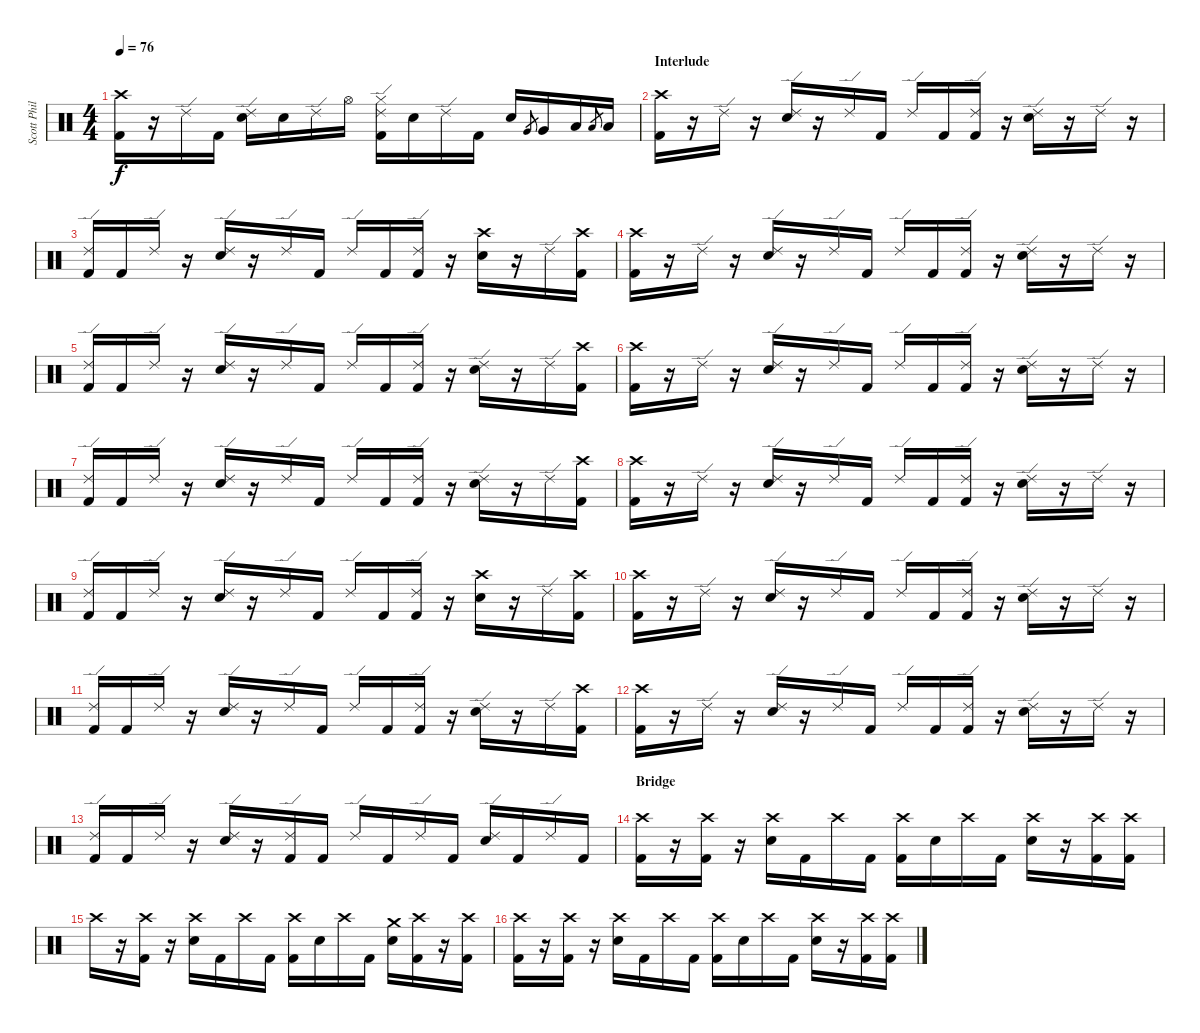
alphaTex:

\track ("Scott Phillips - Drums" "Scott Phil") {instrument percussion}
\staff {score}
\articulation defaults
\ts (4 4)
\tempo 76
\clef neutral
\ks c
("Crash high (hit)" "Kick (hit) 2").16{dy f} r.16 "Ride (edge) 2".16 "Kick (hit) 2".16 ("Ride (edge) 2" "Snare (hit) 2").16 "Snare (hit) 2".16 "Ride (edge) 2".16 "Hi-Hat (open)".16 ("Ride (edge) 2" "Hi-Hat (closed)" "Kick (hit) 2").16 "Snare (hit) 2".16 "Ride (edge) 2".16 "Kick (hit) 2".16 "Snare (hit) 2".16 "Very Low Tom (hit)".8{gr} "Very Low Tom (hit)".16 "Low Tom (hit)".16 "Low Floor Tom (hit)".8{gr} "Low Floor Tom (hit)".16 |
\section ("" "Interlude")
("Crash high (hit)" "Kick (hit) 2").16 r.16 "Ride (edge) 2".16 r.16 ("Ride (edge) 2" "Snare (hit) 2").16 r.16 "Ride (edge) 2".16 "Kick (hit) 2".16 "Ride (edge) 2".16 "Kick (hit) 2".16 ("Ride (edge) 2" "Kick (hit) 2").16 r.16 ("Ride (edge) 2" "Snare (hit) 2").16 r.16 "Ride (edge) 2".16 r.16 |
("Ride (edge) 2" "Kick (hit) 2").16 "Kick (hit) 2".16 "Ride (edge) 2".16 r.16 ("Ride (edge) 2" "Snare (hit) 2").16 r.16 "Ride (edge) 2".16 "Kick (hit) 2".16 "Ride (edge) 2".16 "Kick (hit) 2".16 ("Ride (edge) 2" "Kick (hit) 2").16 r.16 ("Crash high (hit)" "Snare (hit) 2").16 r.16 "Ride (edge) 2".16 ("Crash high (hit)" "Kick (hit) 2").16 |
("Crash high (hit)" "Kick (hit) 2").16 r.16 "Ride (edge) 2".16 r.16 ("Ride (edge) 2" "Snare (hit) 2").16 r.16 "Ride (edge) 2".16 "Kick (hit) 2".16 "Ride (edge) 2".16 "Kick (hit) 2".16 ("Ride (edge) 2" "Kick (hit) 2").16 r.16 ("Ride (edge) 2" "Snare (hit) 2").16 r.16 "Ride (edge) 2".16 r.16 |
("Ride (edge) 2" "Kick (hit) 2").16 "Kick (hit) 2".16 "Ride (edge) 2".16 r.16 ("Ride (edge) 2" "Snare (hit) 2").16 r.16 "Ride (edge) 2".16 "Kick (hit) 2".16 "Ride (edge) 2".16 "Kick (hit) 2".16 ("Ride (edge) 2" "Kick (hit) 2").16 r.16 ("Ride (edge) 2" "Snare (hit) 2").16 r.16 "Ride (edge) 2".16 ("Crash high (hit)" "Kick (hit) 2").16 |
("Crash high (hit)" "Kick (hit) 2").16 r.16 "Ride (edge) 2".16 r.16 ("Ride (edge) 2" "Snare (hit) 2").16 r.16 "Ride (edge) 2".16 "Kick (hit) 2".16 "Ride (edge) 2".16 "Kick (hit) 2".16 ("Ride (edge) 2" "Kick (hit) 2").16 r.16 ("Ride (edge) 2" "Snare (hit) 2").16 r.16 "Ride (edge) 2".16 r.16 |
("Ride (edge) 2" "Kick (hit) 2").16 "Kick (hit) 2".16 "Ride (edge) 2".16 r.16 ("Ride (edge) 2" "Snare (hit) 2").16 r.16 "Ride (edge) 2".16 "Kick (hit) 2".16 "Ride (edge) 2".16 "Kick (hit) 2".16 ("Ride (edge) 2" "Kick (hit) 2").16 r.16 ("Ride (edge) 2" "Snare (hit) 2").16 r.16 "Ride (edge) 2".16 ("Crash high (hit)" "Kick (hit) 2").16 |
("Crash high (hit)" "Kick (hit) 2").16 r.16 "Ride (edge) 2".16 r.16 ("Ride (edge) 2" "Snare (hit) 2").16 r.16 "Ride (edge) 2".16 "Kick (hit) 2".16 "Ride (edge) 2".16 "Kick (hit) 2".16 ("Ride (edge) 2" "Kick (hit) 2").16 r.16 ("Ride (edge) 2" "Snare (hit) 2").16 r.16 "Ride (edge) 2".16 r.16 |
("Ride (edge) 2" "Kick (hit) 2").16 "Kick (hit) 2".16 "Ride (edge) 2".16 r.16 ("Ride (edge) 2" "Snare (hit) 2").16 r.16 "Ride (edge) 2".16 "Kick (hit) 2".16 "Ride (edge) 2".16 "Kick (hit) 2".16 ("Ride (edge) 2" "Kick (hit) 2").16 r.16 ("Crash high (hit)" "Snare (hit) 2").16 r.16 "Ride (edge) 2".16 ("Crash high (hit)" "Kick (hit) 2").16 |
("Crash high (hit)" "Kick (hit) 2").16 r.16 "Ride (edge) 2".16 r.16 ("Ride (edge) 2" "Snare (hit) 2").16 r.16 "Ride (edge) 2".16 "Kick (hit) 2".16 "Ride (edge) 2".16 "Kick (hit) 2".16 ("Ride (edge) 2" "Kick (hit) 2").16 r.16 ("Ride (edge) 2" "Snare (hit) 2").16 r.16 "Ride (edge) 2".16 r.16 |
("Ride (edge) 2" "Kick (hit) 2").16 "Kick (hit) 2".16 "Ride (edge) 2".16 r.16 ("Ride (edge) 2" "Snare (hit) 2").16 r.16 "Ride (edge) 2".16 "Kick (hit) 2".16 "Ride (edge) 2".16 "Kick (hit) 2".16 ("Ride (edge) 2" "Kick (hit) 2").16 r.16 ("Ride (edge) 2" "Snare (hit) 2").16 r.16 "Ride (edge) 2".16 ("Crash high (hit)" "Kick (hit) 2").16 |
("Crash high (hit)" "Kick (hit) 2").16 r.16 "Ride (edge) 2".16 r.16 ("Ride (edge) 2" "Snare (hit) 2").16 r.16 "Ride (edge) 2".16 "Kick (hit) 2".16 "Ride (edge) 2".16 "Kick (hit) 2".16 ("Ride (edge) 2" "Kick (hit) 2").16 r.16 ("Ride (edge) 2" "Snare (hit) 2").16 r.16 "Ride (edge) 2".16 r.16 |
("Ride (edge) 2" "Kick (hit) 2").16 "Kick (hit) 2".16 "Ride (edge) 2".16 r.16 ("Ride (edge) 2" "Snare (hit) 2").16 r.16 ("Ride (edge) 2" "Kick (hit) 2").16 "Kick (hit) 2".16 "Ride (edge) 2".16 "Kick (hit) 2".16 "Ride (edge) 2".16 "Kick (hit) 2".16 ("Ride (edge) 2" "Snare (hit) 2").16 "Kick (hit) 2".16 "Ride (edge) 2".16 "Kick (hit) 2".16 |
\section ("" "Bridge")
("Crash high (hit)" "Kick (hit) 2").16 r.16 ("Crash high (hit)" "Kick (hit) 2").16 r.16 ("Crash high (hit)" "Snare (hit) 2").16 "Kick (hit) 2".16 "Crash high (hit)".16 "Kick (hit) 2".16 ("Crash high (hit)" "Kick (hit) 2").16 "Snare (hit) 2".16 "Crash high (hit)".16 "Kick (hit) 2".16 ("Crash high (hit)" "Snare (hit) 2").16 r.16 ("Crash high (hit)" "Kick (hit) 2").16 ("Crash high (hit)" "Kick (hit) 2").16 |
"Crash high (hit)".16 r.16 ("Crash high (hit)" "Kick (hit) 2").16 r.16 ("Crash high (hit)" "Snare (hit) 2").16 "Kick (hit) 2".16 "Crash high (hit)".16 "Kick (hit) 2".16 ("Crash high (hit)" "Kick (hit) 2").16 "Snare (hit) 2".16 "Crash high (hit)".16 "Kick (hit) 2".16 ("Crash medium (hit)" "Snare (hit) 2").16 ("Crash high (hit)" "Kick (hit) 2").16 r.16 ("Crash high (hit)" "Kick (hit) 2").16 |
("Crash high (hit)" "Kick (hit) 2").16 r.16 ("Crash high (hit)" "Kick (hit) 2").16 r.16 ("Crash high (hit)" "Snare (hit) 2").16 "Kick (hit) 2".16 "Crash high (hit)".16 "Kick (hit) 2".16 ("Crash high (hit)" "Kick (hit) 2").16 "Snare (hit) 2".16 "Crash high (hit)".16 "Kick (hit) 2".16 ("Crash high (hit)" "Snare (hit) 2").16 r.16 ("Crash high (hit)" "Kick (hit) 2").16 ("Crash high (hit)" "Kick (hit) 2").16
